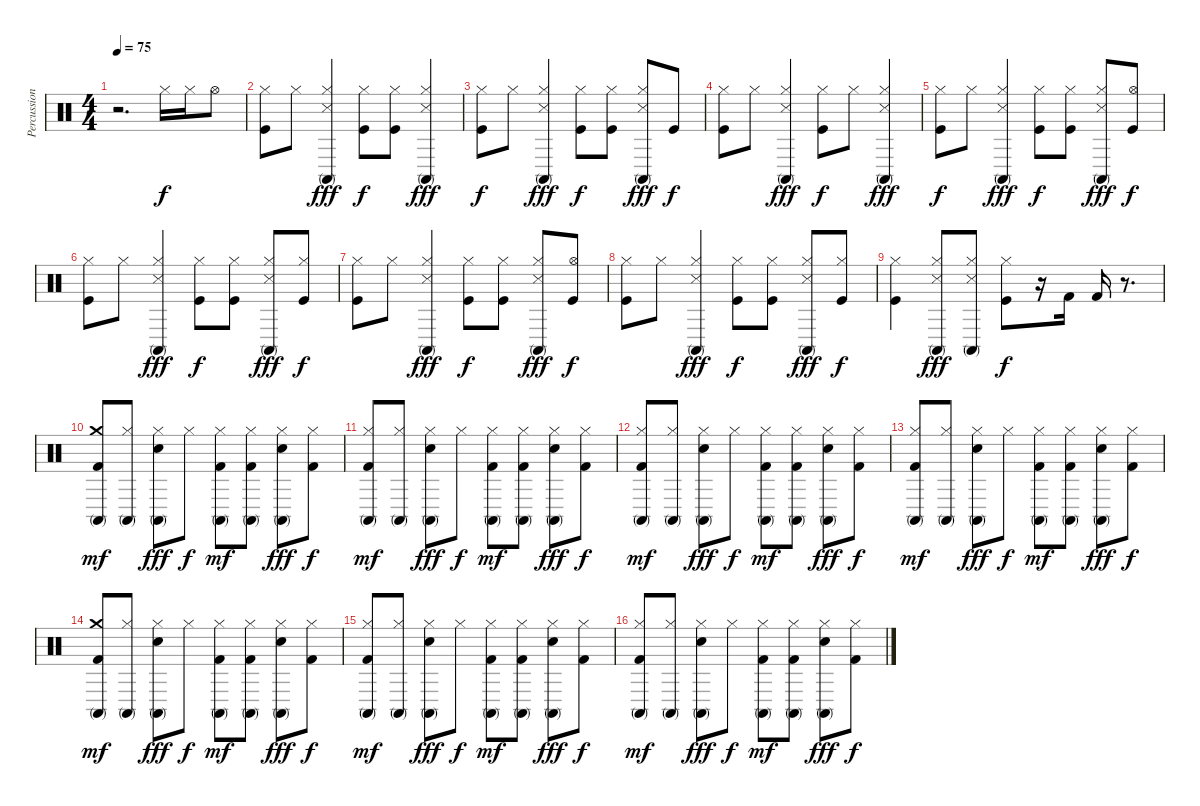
\track ("Percussion" "Percussion") {instrument percussion}
\staff {score}
\articulation defaults
\ts (4 4)
\tempo 75
\clef neutral
\ks c
r.2{d dy f} "Hi-Hat (closed)".16 "Hi-Hat (closed)".16 "Hi-Hat (open)".8 |
("Hi-Hat (closed)" "Kick (hit)").8 "Hi-Hat (closed)".8 ("Hi-Hat (closed)" "Metronome (hit)" "Conga high (mute)").4{dy fff} ("Hi-Hat (closed)" "Kick (hit)").8{dy f} ("Hi-Hat (closed)" "Kick (hit)").8 ("Hi-Hat (closed)" "Metronome (hit)" "Conga high (mute)").4{dy fff} |
("Hi-Hat (closed)" "Kick (hit)").8{dy f} "Hi-Hat (closed)".8 ("Hi-Hat (closed)" "Metronome (hit)" "Conga high (mute)").4{dy fff} ("Hi-Hat (closed)" "Kick (hit)").8{dy f} ("Hi-Hat (closed)" "Kick (hit)").8 ("Hi-Hat (closed)" "Metronome (hit)" "Conga high (mute)").8{dy fff} "Kick (hit)".8{dy f} |
("Hi-Hat (closed)" "Kick (hit)").8 "Hi-Hat (closed)".8 ("Hi-Hat (closed)" "Metronome (hit)" "Conga high (mute)").4{dy fff} ("Hi-Hat (closed)" "Kick (hit)").8{dy f} "Hi-Hat (closed)".8 ("Hi-Hat (closed)" "Metronome (hit)" "Conga high (mute)").4{dy fff} |
("Hi-Hat (closed)" "Kick (hit)").8{dy f} "Hi-Hat (closed)".8 ("Hi-Hat (closed)" "Metronome (hit)" "Conga high (mute)").4{dy fff} ("Hi-Hat (closed)" "Kick (hit)").8{dy f} ("Hi-Hat (closed)" "Kick (hit)").8 ("Hi-Hat (closed)" "Metronome (hit)" "Conga high (mute)").8{dy fff} ("Hi-Hat (open)" "Kick (hit)").8{dy f} |
("Hi-Hat (closed)" "Kick (hit)").8 "Hi-Hat (closed)".8 ("Hi-Hat (closed)" "Metronome (hit)" "Conga high (mute)").4{dy fff} ("Hi-Hat (closed)" "Kick (hit)").8{dy f} ("Hi-Hat (closed)" "Kick (hit)").8 ("Hi-Hat (closed)" "Metronome (hit)" "Conga high (mute)").8{dy fff} ("Hi-Hat (closed)" "Kick (hit)").8{dy f} |
("Hi-Hat (closed)" "Kick (hit)").8 "Hi-Hat (closed)".8 ("Hi-Hat (closed)" "Metronome (hit)" "Conga high (mute)").4{dy fff} ("Hi-Hat (closed)" "Kick (hit)").8{dy f} ("Hi-Hat (closed)" "Kick (hit)").8 ("Hi-Hat (closed)" "Metronome (hit)" "Conga high (mute)").8{dy fff} ("Hi-Hat (open)" "Kick (hit)").8{dy f} |
("Hi-Hat (closed)" "Kick (hit)").8 "Hi-Hat (closed)".8 ("Hi-Hat (closed)" "Metronome (hit)" "Conga high (mute)").4{dy fff} ("Hi-Hat (closed)" "Kick (hit)").8{dy f} ("Hi-Hat (closed)" "Kick (hit)").8 ("Hi-Hat (closed)" "Metronome (hit)" "Conga high (mute)").8{dy fff} ("Hi-Hat (closed)" "Kick (hit)").8{dy f} |
("Hi-Hat (closed)" "Kick (hit)").4 ("Hi-Hat (closed)" "Metronome (hit)" "Conga high (mute)").8{dy fff} ("Hi-Hat (closed)" "Metronome (hit)" "Conga high (mute)").8 ("Hi-Hat (closed)" "Kick (hit)").8{dy f} r.16 "Kick (hit) 2".16 "Kick (hit) 2".16 r.8{d} |
("Crash medium (hit)" "Conga high (mute)" "Kick (hit) 2").8{dy mf volume 16} ("Hi-Hat (closed)" "Conga high (mute)").8 ("Hi-Hat (closed)" "Electric Snare (hit)" "Conga high (mute)").8{dy fff} "Hi-Hat (closed)".8{dy f} ("Hi-Hat (closed)" "Conga high (mute)" "Kick (hit) 2").8{dy mf} ("Hi-Hat (closed)" "Conga high (mute)" "Kick (hit) 2").8 ("Hi-Hat (closed)" "Electric Snare (hit)" "Conga high (mute)").8{dy fff} ("Hi-Hat (closed)" "Kick (hit) 2").8{dy f} |
("Hi-Hat (closed)" "Conga high (mute)" "Kick (hit) 2").8{dy mf} ("Hi-Hat (closed)" "Conga high (mute)").8 ("Hi-Hat (closed)" "Electric Snare (hit)" "Conga high (mute)").8{dy fff} "Hi-Hat (closed)".8{dy f} ("Hi-Hat (closed)" "Conga high (mute)" "Kick (hit) 2").8{dy mf} ("Hi-Hat (closed)" "Conga high (mute)" "Kick (hit) 2").8 ("Hi-Hat (closed)" "Electric Snare (hit)" "Conga high (mute)").8{dy fff} ("Hi-Hat (closed)" "Kick (hit) 2").8{dy f} |
("Hi-Hat (closed)" "Conga high (mute)" "Kick (hit) 2").8{dy mf} ("Hi-Hat (closed)" "Conga high (mute)").8 ("Hi-Hat (closed)" "Electric Snare (hit)" "Conga high (mute)").8{dy fff} "Hi-Hat (closed)".8{dy f} ("Hi-Hat (closed)" "Conga high (mute)" "Kick (hit) 2").8{dy mf} ("Hi-Hat (closed)" "Conga high (mute)" "Kick (hit) 2").8 ("Hi-Hat (closed)" "Electric Snare (hit)" "Conga high (mute)").8{dy fff} ("Hi-Hat (closed)" "Kick (hit) 2").8{dy f} |
("Hi-Hat (closed)" "Conga high (mute)" "Kick (hit) 2").8{dy mf} ("Hi-Hat (closed)" "Conga high (mute)").8 ("Hi-Hat (closed)" "Electric Snare (hit)" "Conga high (mute)").8{dy fff} "Hi-Hat (closed)".8{dy f} ("Hi-Hat (closed)" "Conga high (mute)" "Kick (hit) 2").8{dy mf} ("Hi-Hat (closed)" "Conga high (mute)" "Kick (hit) 2").8 ("Hi-Hat (closed)" "Electric Snare (hit)" "Conga high (mute)").8{dy fff} ("Hi-Hat (closed)" "Kick (hit) 2").8{dy f} |
("Crash medium (hit)" "Conga high (mute)" "Kick (hit) 2").8{dy mf} ("Hi-Hat (closed)" "Conga high (mute)").8 ("Hi-Hat (closed)" "Electric Snare (hit)" "Conga high (mute)").8{dy fff} "Hi-Hat (closed)".8{dy f} ("Hi-Hat (closed)" "Conga high (mute)" "Kick (hit) 2").8{dy mf} ("Hi-Hat (closed)" "Conga high (mute)" "Kick (hit) 2").8 ("Hi-Hat (closed)" "Electric Snare (hit)" "Conga high (mute)").8{dy fff} ("Hi-Hat (closed)" "Kick (hit) 2").8{dy f} |
("Hi-Hat (closed)" "Conga high (mute)" "Kick (hit) 2").8{dy mf} ("Hi-Hat (closed)" "Conga high (mute)").8 ("Hi-Hat (closed)" "Electric Snare (hit)" "Conga high (mute)").8{dy fff} "Hi-Hat (closed)".8{dy f} ("Hi-Hat (closed)" "Conga high (mute)" "Kick (hit) 2").8{dy mf} ("Hi-Hat (closed)" "Conga high (mute)" "Kick (hit) 2").8 ("Hi-Hat (closed)" "Electric Snare (hit)" "Conga high (mute)").8{dy fff} ("Hi-Hat (closed)" "Kick (hit) 2").8{dy f} |
("Hi-Hat (closed)" "Conga high (mute)" "Kick (hit) 2").8{dy mf} ("Hi-Hat (closed)" "Conga high (mute)").8 ("Hi-Hat (closed)" "Electric Snare (hit)" "Conga high (mute)").8{dy fff} "Hi-Hat (closed)".8{dy f} ("Hi-Hat (closed)" "Conga high (mute)" "Kick (hit) 2").8{dy mf} ("Hi-Hat (closed)" "Conga high (mute)" "Kick (hit) 2").8 ("Hi-Hat (closed)" "Electric Snare (hit)" "Conga high (mute)").8{dy fff} ("Hi-Hat (closed)" "Kick (hit) 2").8{dy f}
